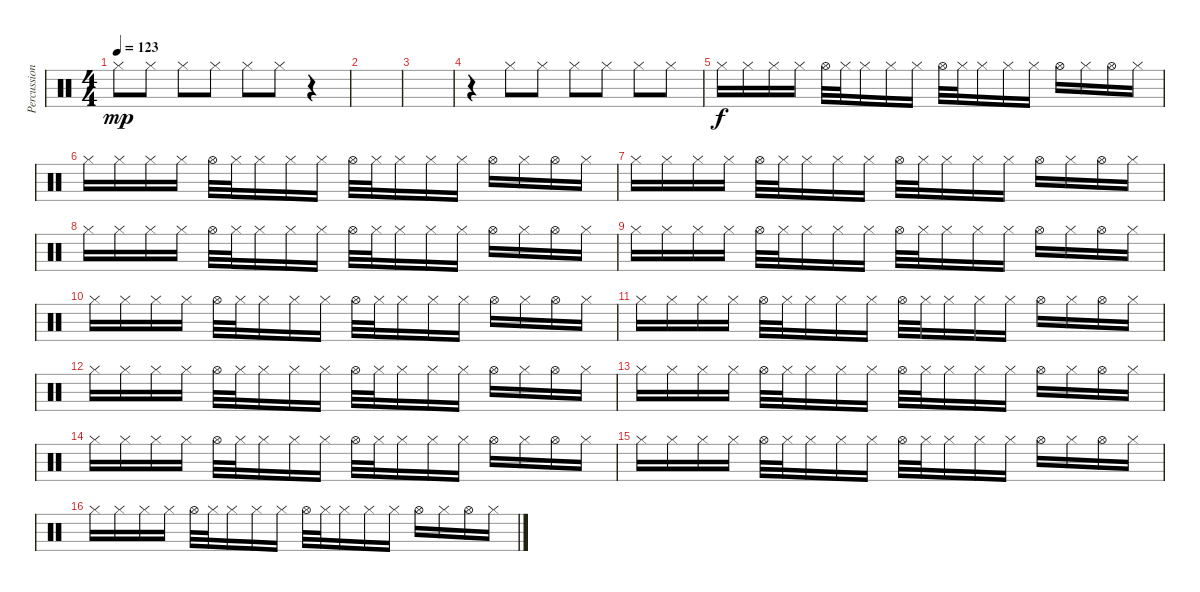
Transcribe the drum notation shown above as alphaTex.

\track ("Percussion" "Percussion") {instrument percussion}
\staff {score}
\articulation defaults
\ts (4 4)
\tempo 123
\clef neutral
\ks c "Hi-Hat (closed)".8{dy mp} "Hi-Hat (closed)".8 "Hi-Hat (closed)".8 "Hi-Hat (closed)".8 "Hi-Hat (closed)".8 "Hi-Hat (closed)".8
r.4 |
|
|
r.4 "Hi-Hat (closed)".8 "Hi-Hat (closed)".8 "Hi-Hat (closed)".8 "Hi-Hat (closed)".8 "Hi-Hat (closed)".8 "Hi-Hat (closed)".8 |
"Hi-Hat (closed)".16{dy f} "Hi-Hat (closed)".16 "Hi-Hat (closed)".16 "Hi-Hat (closed)".16 "Hi-Hat (open)".32 "Hi-Hat (closed)".32 "Hi-Hat (closed)".16 "Hi-Hat (closed)".16 "Hi-Hat (closed)".16 "Hi-Hat (open)".32 "Hi-Hat (closed)".32 "Hi-Hat (closed)".16 "Hi-Hat (closed)".16 "Hi-Hat (closed)".16 "Hi-Hat (open)".16 "Hi-Hat (closed)".16 "Hi-Hat (open)".16 "Hi-Hat (closed)".16 |
"Hi-Hat (closed)".16 "Hi-Hat (closed)".16 "Hi-Hat (closed)".16 "Hi-Hat (closed)".16 "Hi-Hat (open)".32 "Hi-Hat (closed)".32 "Hi-Hat (closed)".16 "Hi-Hat (closed)".16 "Hi-Hat (closed)".16 "Hi-Hat (open)".32 "Hi-Hat (closed)".32 "Hi-Hat (closed)".16 "Hi-Hat (closed)".16 "Hi-Hat (closed)".16 "Hi-Hat (open)".16 "Hi-Hat (closed)".16 "Hi-Hat (open)".16 "Hi-Hat (closed)".16 |
"Hi-Hat (closed)".16 "Hi-Hat (closed)".16 "Hi-Hat (closed)".16 "Hi-Hat (closed)".16 "Hi-Hat (open)".32 "Hi-Hat (closed)".32 "Hi-Hat (closed)".16 "Hi-Hat (closed)".16 "Hi-Hat (closed)".16 "Hi-Hat (open)".32 "Hi-Hat (closed)".32 "Hi-Hat (closed)".16 "Hi-Hat (closed)".16 "Hi-Hat (closed)".16 "Hi-Hat (open)".16 "Hi-Hat (closed)".16 "Hi-Hat (open)".16 "Hi-Hat (closed)".16 |
"Hi-Hat (closed)".16 "Hi-Hat (closed)".16 "Hi-Hat (closed)".16 "Hi-Hat (closed)".16 "Hi-Hat (open)".32 "Hi-Hat (closed)".32 "Hi-Hat (closed)".16 "Hi-Hat (closed)".16 "Hi-Hat (closed)".16 "Hi-Hat (open)".32 "Hi-Hat (closed)".32 "Hi-Hat (closed)".16 "Hi-Hat (closed)".16 "Hi-Hat (closed)".16 "Hi-Hat (open)".16 "Hi-Hat (closed)".16 "Hi-Hat (open)".16 "Hi-Hat (closed)".16 |
"Hi-Hat (closed)".16 "Hi-Hat (closed)".16 "Hi-Hat (closed)".16 "Hi-Hat (closed)".16 "Hi-Hat (open)".32 "Hi-Hat (closed)".32 "Hi-Hat (closed)".16 "Hi-Hat (closed)".16 "Hi-Hat (closed)".16 "Hi-Hat (open)".32 "Hi-Hat (closed)".32 "Hi-Hat (closed)".16 "Hi-Hat (closed)".16 "Hi-Hat (closed)".16 "Hi-Hat (open)".16 "Hi-Hat (closed)".16 "Hi-Hat (open)".16 "Hi-Hat (closed)".16 |
"Hi-Hat (closed)".16 "Hi-Hat (closed)".16 "Hi-Hat (closed)".16 "Hi-Hat (closed)".16 "Hi-Hat (open)".32 "Hi-Hat (closed)".32 "Hi-Hat (closed)".16 "Hi-Hat (closed)".16 "Hi-Hat (closed)".16 "Hi-Hat (open)".32 "Hi-Hat (closed)".32 "Hi-Hat (closed)".16 "Hi-Hat (closed)".16 "Hi-Hat (closed)".16 "Hi-Hat (open)".16 "Hi-Hat (closed)".16 "Hi-Hat (open)".16 "Hi-Hat (closed)".16 |
"Hi-Hat (closed)".16 "Hi-Hat (closed)".16 "Hi-Hat (closed)".16 "Hi-Hat (closed)".16 "Hi-Hat (open)".32 "Hi-Hat (closed)".32 "Hi-Hat (closed)".16 "Hi-Hat (closed)".16 "Hi-Hat (closed)".16 "Hi-Hat (open)".32 "Hi-Hat (closed)".32 "Hi-Hat (closed)".16 "Hi-Hat (closed)".16 "Hi-Hat (closed)".16 "Hi-Hat (open)".16 "Hi-Hat (closed)".16 "Hi-Hat (open)".16 "Hi-Hat (closed)".16 |
"Hi-Hat (closed)".16 "Hi-Hat (closed)".16 "Hi-Hat (closed)".16 "Hi-Hat (closed)".16 "Hi-Hat (open)".32 "Hi-Hat (closed)".32 "Hi-Hat (closed)".16 "Hi-Hat (closed)".16 "Hi-Hat (closed)".16 "Hi-Hat (open)".32 "Hi-Hat (closed)".32 "Hi-Hat (closed)".16 "Hi-Hat (closed)".16 "Hi-Hat (closed)".16 "Hi-Hat (open)".16 "Hi-Hat (closed)".16 "Hi-Hat (open)".16 "Hi-Hat (closed)".16 |
"Hi-Hat (closed)".16 "Hi-Hat (closed)".16 "Hi-Hat (closed)".16 "Hi-Hat (closed)".16 "Hi-Hat (open)".32 "Hi-Hat (closed)".32 "Hi-Hat (closed)".16 "Hi-Hat (closed)".16 "Hi-Hat (closed)".16 "Hi-Hat (open)".32 "Hi-Hat (closed)".32 "Hi-Hat (closed)".16 "Hi-Hat (closed)".16 "Hi-Hat (closed)".16 "Hi-Hat (open)".16 "Hi-Hat (closed)".16 "Hi-Hat (open)".16 "Hi-Hat (closed)".16 |
"Hi-Hat (closed)".16 "Hi-Hat (closed)".16 "Hi-Hat (closed)".16 "Hi-Hat (closed)".16 "Hi-Hat (open)".32 "Hi-Hat (closed)".32 "Hi-Hat (closed)".16 "Hi-Hat (closed)".16 "Hi-Hat (closed)".16 "Hi-Hat (open)".32 "Hi-Hat (closed)".32 "Hi-Hat (closed)".16 "Hi-Hat (closed)".16 "Hi-Hat (closed)".16 "Hi-Hat (open)".16 "Hi-Hat (closed)".16 "Hi-Hat (open)".16 "Hi-Hat (closed)".16 |
"Hi-Hat (closed)".16 "Hi-Hat (closed)".16 "Hi-Hat (closed)".16 "Hi-Hat (closed)".16 "Hi-Hat (open)".32 "Hi-Hat (closed)".32 "Hi-Hat (closed)".16 "Hi-Hat (closed)".16 "Hi-Hat (closed)".16 "Hi-Hat (open)".32 "Hi-Hat (closed)".32 "Hi-Hat (closed)".16 "Hi-Hat (closed)".16 "Hi-Hat (closed)".16 "Hi-Hat (open)".16 "Hi-Hat (closed)".16 "Hi-Hat (open)".16 "Hi-Hat (closed)".16 |
"Hi-Hat (closed)".16 "Hi-Hat (closed)".16 "Hi-Hat (closed)".16 "Hi-Hat (closed)".16 "Hi-Hat (open)".32 "Hi-Hat (closed)".32 "Hi-Hat (closed)".16 "Hi-Hat (closed)".16 "Hi-Hat (closed)".16 "Hi-Hat (open)".32 "Hi-Hat (closed)".32 "Hi-Hat (closed)".16 "Hi-Hat (closed)".16 "Hi-Hat (closed)".16 "Hi-Hat (open)".16 "Hi-Hat (closed)".16 "Hi-Hat (open)".16 "Hi-Hat (closed)".16
